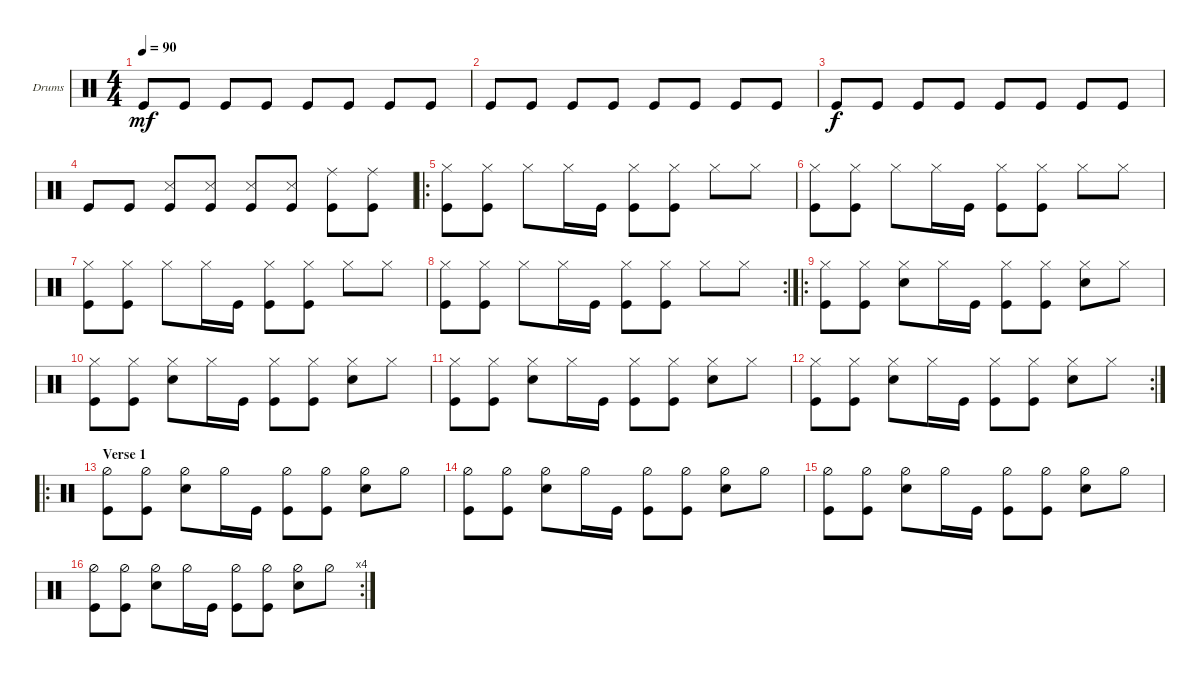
\defaultSystemsLayout 4
\bracketExtendMode groupsimilarinstruments
\firstSystemTrackNameOrientation horizontal
\otherSystemsTrackNameOrientation horizontal
\track ("Drumkit" "Drums") {instrument percussion}
\staff {score}
\articulation defaults
\ts (4 4)
\tempo 90
\clef neutral
\ks c "Kick (hit)".8{dy mf} "Kick (hit)".8 "Kick (hit)".8 "Kick (hit)".8 "Kick (hit)".8 "Kick (hit)".8 "Kick (hit)".8 "Kick (hit)".8
|
"Kick (hit)".8 "Kick (hit)".8 "Kick (hit)".8 "Kick (hit)".8 "Kick (hit)".8 "Kick (hit)".8 "Kick (hit)".8 "Kick (hit)".8 |
"Kick (hit)".8{dy f} "Kick (hit)".8 "Kick (hit)".8 "Kick (hit)".8 "Kick (hit)".8 "Kick (hit)".8 "Kick (hit)".8 "Kick (hit)".8 |
"Kick (hit)".8 "Kick (hit)".8 ("Kick (hit)" "Snare (side stick) 3").8 ("Kick (hit)" "Snare (side stick) 3").8 ("Kick (hit)" "Snare (side stick) 3").8 ("Kick (hit)" "Snare (side stick) 3").8 ("Kick (hit)" "Ride (middle)").8 ("Kick (hit)" "Ride (middle)").8 |
\ro
("Hi-Hat (closed)" "Kick (hit)").8 ("Hi-Hat (closed)" "Kick (hit)").8 "Hi-Hat (closed)".8 "Hi-Hat (closed)".16 "Kick (hit)".16 ("Kick (hit)" "Hi-Hat (closed)").8 ("Hi-Hat (closed)" "Kick (hit)").8 "Hi-Hat (closed)".8 "Hi-Hat (closed)".8 |
("Hi-Hat (closed)" "Kick (hit)").8 ("Hi-Hat (closed)" "Kick (hit)").8 "Hi-Hat (closed)".8 "Hi-Hat (closed)".16 "Kick (hit)".16 ("Kick (hit)" "Hi-Hat (closed)").8 ("Hi-Hat (closed)" "Kick (hit)").8 "Hi-Hat (closed)".8 "Hi-Hat (closed)".8 |
("Hi-Hat (closed)" "Kick (hit)").8 ("Hi-Hat (closed)" "Kick (hit)").8 "Hi-Hat (closed)".8 "Hi-Hat (closed)".16 "Kick (hit)".16 ("Kick (hit)" "Hi-Hat (closed)").8 ("Hi-Hat (closed)" "Kick (hit)").8 "Hi-Hat (closed)".8 "Hi-Hat (closed)".8 |
\rc 2
("Hi-Hat (closed)" "Kick (hit)").8 ("Hi-Hat (closed)" "Kick (hit)").8 "Hi-Hat (closed)".8 "Hi-Hat (closed)".16 "Kick (hit)".16 ("Kick (hit)" "Hi-Hat (closed)").8 ("Hi-Hat (closed)" "Kick (hit)").8 "Hi-Hat (closed)".8 "Hi-Hat (closed)".8 |
\ro
("Hi-Hat (closed)" "Kick (hit)").8 ("Hi-Hat (closed)" "Kick (hit)").8 ("Hi-Hat (closed)" "Snare (hit) 2").8 "Hi-Hat (closed)".16 "Kick (hit)".16 ("Kick (hit)" "Hi-Hat (closed)").8 ("Hi-Hat (closed)" "Kick (hit)").8 ("Hi-Hat (closed)" "Snare (hit) 2").8 "Hi-Hat (closed)".8 |
("Hi-Hat (closed)" "Kick (hit)").8 ("Hi-Hat (closed)" "Kick (hit)").8 ("Hi-Hat (closed)" "Snare (hit) 2").8 "Hi-Hat (closed)".16 "Kick (hit)".16 ("Kick (hit)" "Hi-Hat (closed)").8 ("Hi-Hat (closed)" "Kick (hit)").8 ("Hi-Hat (closed)" "Snare (hit) 2").8 "Hi-Hat (closed)".8 |
("Hi-Hat (closed)" "Kick (hit)").8 ("Hi-Hat (closed)" "Kick (hit)").8 ("Hi-Hat (closed)" "Snare (hit) 2").8 "Hi-Hat (closed)".16 "Kick (hit)".16 ("Kick (hit)" "Hi-Hat (closed)").8 ("Hi-Hat (closed)" "Kick (hit)").8 ("Hi-Hat (closed)" "Snare (hit) 2").8 "Hi-Hat (closed)".8 |
\rc 2
("Hi-Hat (closed)" "Kick (hit)").8 ("Hi-Hat (closed)" "Kick (hit)").8 ("Hi-Hat (closed)" "Snare (hit) 2").8 "Hi-Hat (closed)".16 "Kick (hit)".16 ("Kick (hit)" "Hi-Hat (closed)").8 ("Hi-Hat (closed)" "Kick (hit)").8 ("Hi-Hat (closed)" "Snare (hit) 2").8 "Hi-Hat (closed)".8 |
\ro
\section ("" "Verse 1")
("Hi-Hat (half)" "Kick (hit)").8 ("Hi-Hat (half)" "Kick (hit)").8 ("Hi-Hat (half)" "Snare (hit) 2").8 "Hi-Hat (half)".16 "Kick (hit)".16 ("Kick (hit)" "Hi-Hat (half)").8 ("Hi-Hat (half)" "Kick (hit)").8 ("Hi-Hat (half)" "Snare (hit) 2").8 "Hi-Hat (half)".8 |
("Hi-Hat (half)" "Kick (hit)").8 ("Hi-Hat (half)" "Kick (hit)").8 ("Hi-Hat (half)" "Snare (hit) 2").8 "Hi-Hat (half)".16 "Kick (hit)".16 ("Kick (hit)" "Hi-Hat (half)").8 ("Hi-Hat (half)" "Kick (hit)").8 ("Hi-Hat (half)" "Snare (hit) 2").8 "Hi-Hat (half)".8 |
("Hi-Hat (half)" "Kick (hit)").8 ("Hi-Hat (half)" "Kick (hit)").8 ("Hi-Hat (half)" "Snare (hit) 2").8 "Hi-Hat (half)".16 "Kick (hit)".16 ("Kick (hit)" "Hi-Hat (half)").8 ("Hi-Hat (half)" "Kick (hit)").8 ("Hi-Hat (half)" "Snare (hit) 2").8 "Hi-Hat (half)".8 |
\rc 4
("Hi-Hat (half)" "Kick (hit)").8 ("Hi-Hat (half)" "Kick (hit)").8 ("Hi-Hat (half)" "Snare (hit) 2").8 "Hi-Hat (half)".16 "Kick (hit)".16 ("Kick (hit)" "Hi-Hat (half)").8 ("Hi-Hat (half)" "Kick (hit)").8 ("Hi-Hat (half)" "Snare (hit) 2").8 "Hi-Hat (half)".8
